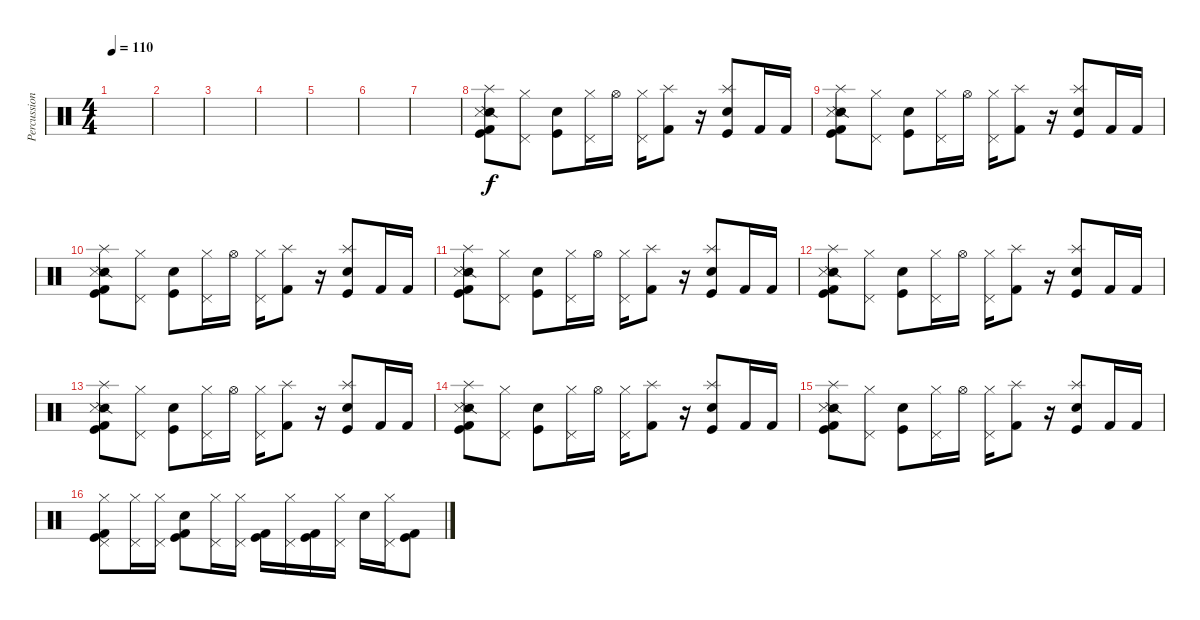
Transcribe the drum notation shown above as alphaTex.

\track ("Percussion" "Percussion") {instrument percussion}
\staff {score}
\articulation defaults
\ts (4 4)
\tempo 110
\clef neutral
\ks c
|
|
|
|
|
|
|
("Kick (hit)" "Kick (hit) 2" "Snare (side stick) 2" "Metronome (hit)" "Splash (hit)").8 ("Pedal Hi-Hat (hit)" "Hi-Hat (closed)").8 ("Snare (hit) 2" "Kick (hit)").8 ("Pedal Hi-Hat (hit)" "Hi-Hat (closed)").16 "Hi-Hat (open)".16 ("Pedal Hi-Hat (hit)" "Hi-Hat (closed)").16 ("Kick (hit) 2" "Splash (hit)").8 r.16 ("Snare (hit) 2" "Kick (hit)" "Splash (hit)").8 "Kick (hit) 2".16 "Kick (hit) 2".16 |
("Kick (hit)" "Kick (hit) 2" "Snare (side stick) 2" "Metronome (hit)" "Splash (hit)").8 ("Pedal Hi-Hat (hit)" "Hi-Hat (closed)").8 ("Snare (hit) 2" "Kick (hit)").8 ("Pedal Hi-Hat (hit)" "Hi-Hat (closed)").16 "Hi-Hat (open)".16 ("Pedal Hi-Hat (hit)" "Hi-Hat (closed)").16 ("Kick (hit) 2" "Splash (hit)").8 r.16 ("Snare (hit) 2" "Kick (hit)" "Splash (hit)").8 "Kick (hit) 2".16 "Kick (hit) 2".16 |
("Kick (hit)" "Kick (hit) 2" "Snare (side stick) 2" "Metronome (hit)" "Splash (hit)").8 ("Pedal Hi-Hat (hit)" "Hi-Hat (closed)").8 ("Snare (hit) 2" "Kick (hit)").8 ("Pedal Hi-Hat (hit)" "Hi-Hat (closed)").16 "Hi-Hat (open)".16 ("Pedal Hi-Hat (hit)" "Hi-Hat (closed)").16 ("Kick (hit) 2" "Splash (hit)").8 r.16 ("Snare (hit) 2" "Kick (hit)" "Splash (hit)").8 "Kick (hit) 2".16 "Kick (hit) 2".16 |
("Kick (hit)" "Kick (hit) 2" "Snare (side stick) 2" "Metronome (hit)" "Splash (hit)").8 ("Pedal Hi-Hat (hit)" "Hi-Hat (closed)").8 ("Snare (hit) 2" "Kick (hit)").8 ("Pedal Hi-Hat (hit)" "Hi-Hat (closed)").16 "Hi-Hat (open)".16 ("Pedal Hi-Hat (hit)" "Hi-Hat (closed)").16 ("Kick (hit) 2" "Splash (hit)").8 r.16 ("Snare (hit) 2" "Kick (hit)" "Splash (hit)").8 "Kick (hit) 2".16 "Kick (hit) 2".16 |
("Kick (hit)" "Kick (hit) 2" "Snare (side stick) 2" "Metronome (hit)" "Splash (hit)").8 ("Pedal Hi-Hat (hit)" "Hi-Hat (closed)").8 ("Snare (hit) 2" "Kick (hit)").8 ("Pedal Hi-Hat (hit)" "Hi-Hat (closed)").16 "Hi-Hat (open)".16 ("Pedal Hi-Hat (hit)" "Hi-Hat (closed)").16 ("Kick (hit) 2" "Splash (hit)").8 r.16 ("Snare (hit) 2" "Kick (hit)" "Splash (hit)").8 "Kick (hit) 2".16 "Kick (hit) 2".16 |
("Kick (hit)" "Kick (hit) 2" "Snare (side stick) 2" "Metronome (hit)" "Splash (hit)").8 ("Pedal Hi-Hat (hit)" "Hi-Hat (closed)").8 ("Snare (hit) 2" "Kick (hit)").8 ("Pedal Hi-Hat (hit)" "Hi-Hat (closed)").16 "Hi-Hat (open)".16 ("Pedal Hi-Hat (hit)" "Hi-Hat (closed)").16 ("Kick (hit) 2" "Splash (hit)").8 r.16 ("Snare (hit) 2" "Kick (hit)" "Splash (hit)").8 "Kick (hit) 2".16 "Kick (hit) 2".16 |
("Kick (hit)" "Kick (hit) 2" "Snare (side stick) 2" "Metronome (hit)" "Splash (hit)").8 ("Pedal Hi-Hat (hit)" "Hi-Hat (closed)").8 ("Snare (hit) 2" "Kick (hit)").8 ("Pedal Hi-Hat (hit)" "Hi-Hat (closed)").16 "Hi-Hat (open)".16 ("Pedal Hi-Hat (hit)" "Hi-Hat (closed)").16 ("Kick (hit) 2" "Splash (hit)").8 r.16 ("Snare (hit) 2" "Kick (hit)" "Splash (hit)").8 "Kick (hit) 2".16 "Kick (hit) 2".16 |
("Kick (hit)" "Kick (hit) 2" "Snare (side stick) 2" "Metronome (hit)" "Splash (hit)").8 ("Pedal Hi-Hat (hit)" "Hi-Hat (closed)").8 ("Snare (hit) 2" "Kick (hit)").8 ("Pedal Hi-Hat (hit)" "Hi-Hat (closed)").16 "Hi-Hat (open)".16 ("Pedal Hi-Hat (hit)" "Hi-Hat (closed)").16 ("Kick (hit) 2" "Splash (hit)").8 r.16 ("Snare (hit) 2" "Kick (hit)" "Splash (hit)").8 "Kick (hit) 2".16 "Kick (hit) 2".16 |
("Kick (hit) 2" "Kick (hit)" "Pedal Hi-Hat (hit)" "Hi-Hat (closed)").8 ("Pedal Hi-Hat (hit)" "Hi-Hat (closed)").16 ("Pedal Hi-Hat (hit)" "Hi-Hat (closed)").16 ("Snare (hit) 2" "Kick (hit) 2" "Kick (hit)").8 ("Pedal Hi-Hat (hit)" "Hi-Hat (closed)").16 ("Pedal Hi-Hat (hit)" "Hi-Hat (closed)").16 ("Kick (hit) 2" "Kick (hit)").16 ("Pedal Hi-Hat (hit)" "Hi-Hat (closed)").16 ("Kick (hit) 2" "Kick (hit)").16 ("Pedal Hi-Hat (hit)" "Hi-Hat (closed)").16 "Snare (hit) 2".16 ("Pedal Hi-Hat (hit)" "Hi-Hat (closed)").16 ("Kick (hit) 2" "Kick (hit)").8
